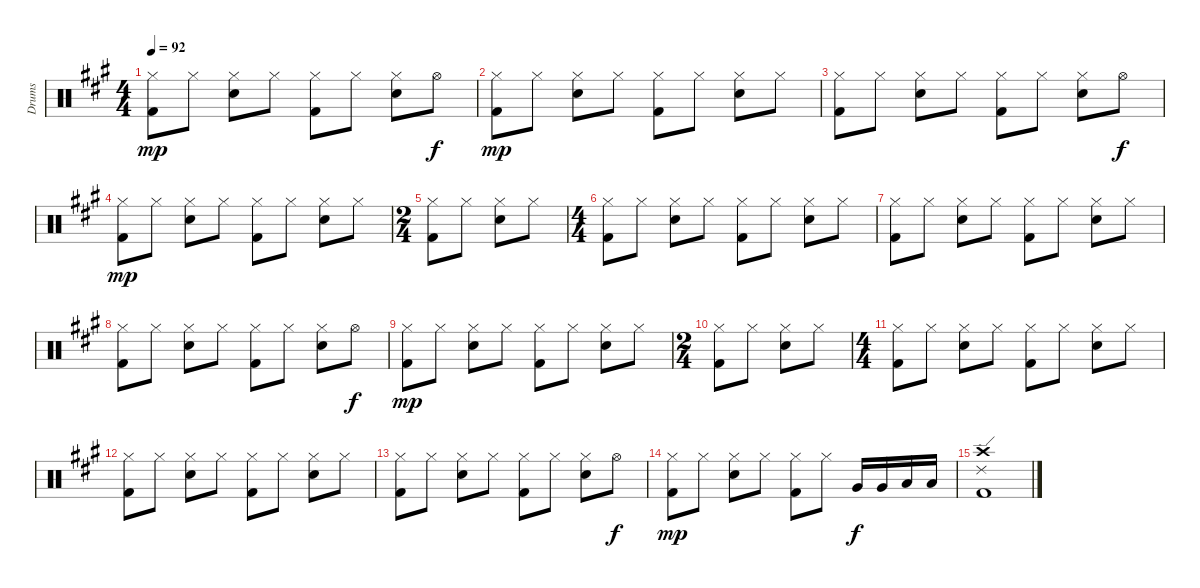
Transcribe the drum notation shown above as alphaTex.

\track ("Drums" "Drums") {instrument percussion}
\staff {score}
\articulation defaults
\ts (4 4)
\tempo 92
\clef neutral
\ks f#minor
("Kick (hit) 2" "Hi-Hat (closed)").8{dy mp} "Hi-Hat (closed)".8 ("Snare (hit) 2" "Hi-Hat (closed)").8 "Hi-Hat (closed)".8 ("Kick (hit) 2" "Hi-Hat (closed)").8 "Hi-Hat (closed)".8 ("Snare (hit) 2" "Hi-Hat (closed)").8 "Hi-Hat (open)".8{dy f} |
("Kick (hit) 2" "Hi-Hat (closed)").8{dy mp} "Hi-Hat (closed)".8 ("Snare (hit) 2" "Hi-Hat (closed)").8 "Hi-Hat (closed)".8 ("Kick (hit) 2" "Hi-Hat (closed)").8 "Hi-Hat (closed)".8 ("Snare (hit) 2" "Hi-Hat (closed)").8 "Hi-Hat (closed)".8 |
("Kick (hit) 2" "Hi-Hat (closed)").8 "Hi-Hat (closed)".8 ("Snare (hit) 2" "Hi-Hat (closed)").8 "Hi-Hat (closed)".8 ("Kick (hit) 2" "Hi-Hat (closed)").8 "Hi-Hat (closed)".8 ("Snare (hit) 2" "Hi-Hat (closed)").8 "Hi-Hat (open)".8{dy f} |
("Kick (hit) 2" "Hi-Hat (closed)").8{dy mp} "Hi-Hat (closed)".8 ("Snare (hit) 2" "Hi-Hat (closed)").8 "Hi-Hat (closed)".8 ("Kick (hit) 2" "Hi-Hat (closed)").8 "Hi-Hat (closed)".8 ("Snare (hit) 2" "Hi-Hat (closed)").8 "Hi-Hat (closed)".8 |
\ts (2 4)
("Kick (hit) 2" "Hi-Hat (closed)").8 "Hi-Hat (closed)".8 ("Snare (hit) 2" "Hi-Hat (closed)").8 "Hi-Hat (closed)".8 |
\ts (4 4)
("Kick (hit) 2" "Hi-Hat (closed)").8 "Hi-Hat (closed)".8 ("Snare (hit) 2" "Hi-Hat (closed)").8 "Hi-Hat (closed)".8 ("Kick (hit) 2" "Hi-Hat (closed)").8 "Hi-Hat (closed)".8 ("Snare (hit) 2" "Hi-Hat (closed)").8 "Hi-Hat (closed)".8 |
("Kick (hit) 2" "Hi-Hat (closed)").8 "Hi-Hat (closed)".8 ("Snare (hit) 2" "Hi-Hat (closed)").8 "Hi-Hat (closed)".8 ("Kick (hit) 2" "Hi-Hat (closed)").8 "Hi-Hat (closed)".8 ("Snare (hit) 2" "Hi-Hat (closed)").8 "Hi-Hat (closed)".8 |
("Kick (hit) 2" "Hi-Hat (closed)").8 "Hi-Hat (closed)".8 ("Snare (hit) 2" "Hi-Hat (closed)").8 "Hi-Hat (closed)".8 ("Kick (hit) 2" "Hi-Hat (closed)").8 "Hi-Hat (closed)".8 ("Snare (hit) 2" "Hi-Hat (closed)").8 "Hi-Hat (open)".8{dy f} |
("Kick (hit) 2" "Hi-Hat (closed)").8{dy mp} "Hi-Hat (closed)".8 ("Snare (hit) 2" "Hi-Hat (closed)").8 "Hi-Hat (closed)".8 ("Kick (hit) 2" "Hi-Hat (closed)").8 "Hi-Hat (closed)".8 ("Snare (hit) 2" "Hi-Hat (closed)").8 "Hi-Hat (closed)".8 |
\ts (2 4)
("Kick (hit) 2" "Hi-Hat (closed)").8 "Hi-Hat (closed)".8 ("Snare (hit) 2" "Hi-Hat (closed)").8 "Hi-Hat (closed)".8 |
\ts (4 4)
("Kick (hit) 2" "Hi-Hat (closed)").8 "Hi-Hat (closed)".8 ("Snare (hit) 2" "Hi-Hat (closed)").8 "Hi-Hat (closed)".8 ("Kick (hit) 2" "Hi-Hat (closed)").8 "Hi-Hat (closed)".8 ("Snare (hit) 2" "Hi-Hat (closed)").8 "Hi-Hat (closed)".8 |
("Kick (hit) 2" "Hi-Hat (closed)").8 "Hi-Hat (closed)".8 ("Snare (hit) 2" "Hi-Hat (closed)").8 "Hi-Hat (closed)".8 ("Kick (hit) 2" "Hi-Hat (closed)").8 "Hi-Hat (closed)".8 ("Snare (hit) 2" "Hi-Hat (closed)").8 "Hi-Hat (closed)".8 |
("Kick (hit) 2" "Hi-Hat (closed)").8 "Hi-Hat (closed)".8 ("Snare (hit) 2" "Hi-Hat (closed)").8 "Hi-Hat (closed)".8 ("Kick (hit) 2" "Hi-Hat (closed)").8 "Hi-Hat (closed)".8 ("Snare (hit) 2" "Hi-Hat (closed)").8 "Hi-Hat (open)".8{dy f} |
("Kick (hit) 2" "Hi-Hat (closed)").8{dy mp} "Hi-Hat (closed)".8 ("Snare (hit) 2" "Hi-Hat (closed)").8 "Hi-Hat (closed)".8 ("Kick (hit) 2" "Hi-Hat (closed)").8 "Hi-Hat (closed)".8 "Very Low Tom (hit)".16{dy f} "Very Low Tom (hit)".16 "Low Floor Tom (hit)".16 "Low Floor Tom (hit)".16 |
("Kick (hit) 2" "Ride (edge) 2" "Crash high (hit)").1
